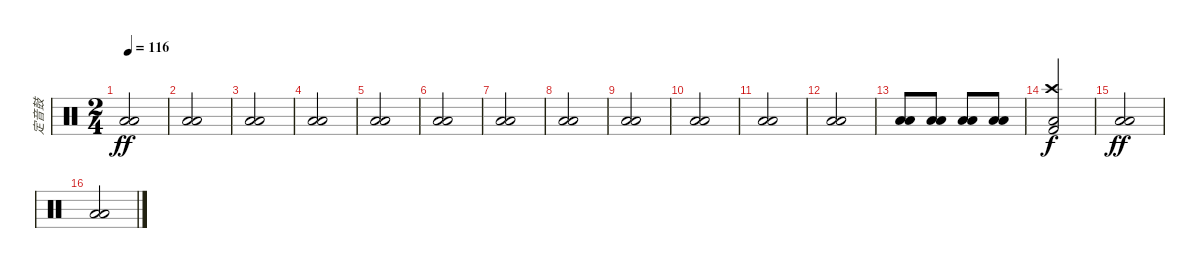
\track ("定音鼓" "定音鼓") {instrument percussion}
\staff {score}
\articulation defaults
\ts (2 4)
\tempo 116
\clef neutral
\ks c
("Low Floor Tom (hit)" "Low Floor Tom (hit)").2{dy ff} |
("Low Floor Tom (hit)" "Low Floor Tom (hit)").2 |
("Low Floor Tom (hit)" "Low Floor Tom (hit)").2 |
("Low Floor Tom (hit)" "Low Floor Tom (hit)").2 |
("Low Floor Tom (hit)" "Low Floor Tom (hit)").2 |
("Low Floor Tom (hit)" "Low Floor Tom (hit)").2 |
("Low Floor Tom (hit)" "Low Floor Tom (hit)").2 |
("Low Floor Tom (hit)" "Low Floor Tom (hit)").2 |
("Low Floor Tom (hit)" "Low Floor Tom (hit)").2 |
("Low Floor Tom (hit)" "Low Floor Tom (hit)").2 |
("Low Floor Tom (hit)" "Low Floor Tom (hit)").2 |
("Low Floor Tom (hit)" "Low Floor Tom (hit)").2 |
("Low Floor Tom (hit)" "Low Floor Tom (hit)").8 ("Low Floor Tom (hit)" "Low Floor Tom (hit)").8 ("Low Floor Tom (hit)" "Low Floor Tom (hit)").8 ("Low Floor Tom (hit)" "Low Floor Tom (hit)").8 |
("Crash high (hit)" "Low Floor Tom (hit)" "Kick (hit) 2").2{dy f} |
("Low Floor Tom (hit)" "Low Floor Tom (hit)").2{dy ff} |
("Low Floor Tom (hit)" "Low Floor Tom (hit)").2
